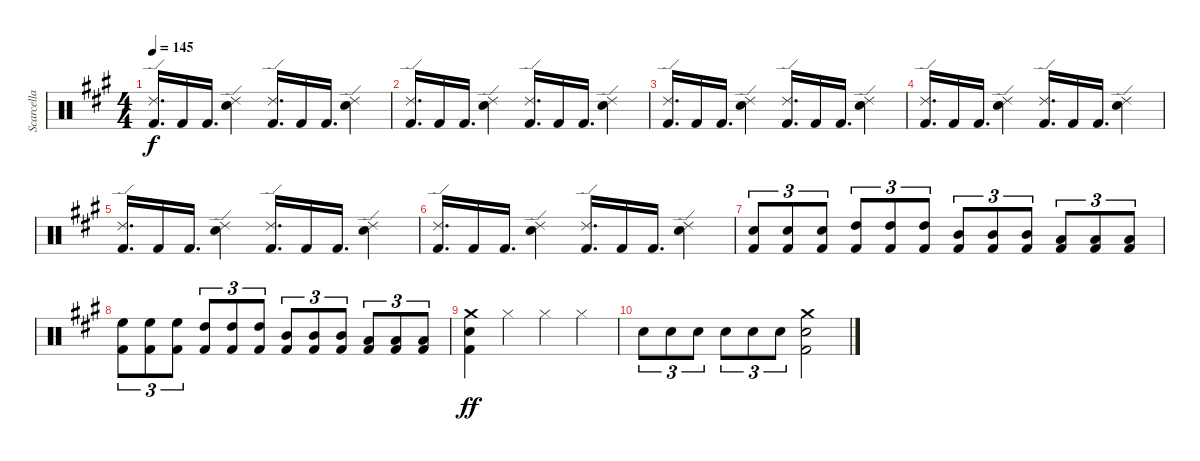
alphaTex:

\track ("Scarcella" "Scarcella") {instrument percussion}
\staff {score}
\articulation defaults
\ts (4 4)
\tempo 145
\clef neutral
\ks f#minor
("Ride (edge) 2" "Kick (hit) 2").16{d dy f} "Kick (hit) 2".16 "Kick (hit) 2".16{d} ("Ride (edge) 2" "Snare (hit) 2").4 ("Ride (edge) 2" "Kick (hit) 2").16{d} "Kick (hit) 2".16 "Kick (hit) 2".16{d} ("Ride (edge) 2" "Snare (hit) 2").4 |
("Ride (edge) 2" "Kick (hit) 2").16{d} "Kick (hit) 2".16 "Kick (hit) 2".16{d} ("Ride (edge) 2" "Snare (hit) 2").4 ("Ride (edge) 2" "Kick (hit) 2").16{d} "Kick (hit) 2".16 "Kick (hit) 2".16{d} ("Ride (edge) 2" "Snare (hit) 2").4 |
("Ride (edge) 2" "Kick (hit) 2").16{d} "Kick (hit) 2".16 "Kick (hit) 2".16{d} ("Ride (edge) 2" "Snare (hit) 2").4 ("Ride (edge) 2" "Kick (hit) 2").16{d} "Kick (hit) 2".16 "Kick (hit) 2".16{d} ("Ride (edge) 2" "Snare (hit) 2").4 |
("Ride (edge) 2" "Kick (hit) 2").16{d} "Kick (hit) 2".16 "Kick (hit) 2".16{d} ("Ride (edge) 2" "Snare (hit) 2").4 ("Ride (edge) 2" "Kick (hit) 2").16{d} "Kick (hit) 2".16 "Kick (hit) 2".16{d} ("Ride (edge) 2" "Snare (hit) 2").4 |
("Ride (edge) 2" "Kick (hit) 2").16{d} "Kick (hit) 2".16 "Kick (hit) 2".16{d} ("Ride (edge) 2" "Snare (hit) 2").4 ("Ride (edge) 2" "Kick (hit) 2").16{d} "Kick (hit) 2".16 "Kick (hit) 2".16{d} ("Ride (edge) 2" "Snare (hit) 2").4 |
("Ride (edge) 2" "Kick (hit) 2").16{d} "Kick (hit) 2".16 "Kick (hit) 2".16{d} ("Ride (edge) 2" "Snare (hit) 2").4 ("Ride (edge) 2" "Kick (hit) 2").16{d} "Kick (hit) 2".16 "Kick (hit) 2".16{d} ("Ride (edge) 2" "Snare (hit) 2").4 |
("Snare (hit) 2" "Kick (hit) 2").8{tu (3 2)} ("Snare (hit) 2" "Kick (hit) 2").8{tu (3 2)} ("Snare (hit) 2" "Kick (hit) 2").8{tu (3 2)} ("High Tom (hit)" "Kick (hit) 2").8{tu (3 2)} ("High Tom (hit)" "Kick (hit) 2").8{tu (3 2)} ("High Tom (hit)" "Kick (hit) 2").8{tu (3 2)} ("Mid Tom (hit)" "Kick (hit) 2").8{tu (3 2)} ("Mid Tom (hit)" "Kick (hit) 2").8{tu (3 2)} ("Mid Tom (hit)" "Kick (hit) 2").8{tu (3 2)} ("Low Tom (hit)" "Kick (hit) 2").8{tu (3 2)} ("Low Tom (hit)" "Kick (hit) 2").8{tu (3 2)} ("Low Tom (hit)" "Kick (hit) 2").8{tu (3 2)} |
("High Floor Tom (hit)" "Kick (hit) 2").8{tu (3 2)} ("High Floor Tom (hit)" "Kick (hit) 2").8{tu (3 2)} ("High Floor Tom (hit)" "Kick (hit) 2").8{tu (3 2)} ("High Tom (hit)" "Kick (hit) 2").8{tu (3 2)} ("High Tom (hit)" "Kick (hit) 2").8{tu (3 2)} ("High Tom (hit)" "Kick (hit) 2").8{tu (3 2)} ("Mid Tom (hit)" "Kick (hit) 2").8{tu (3 2)} ("Mid Tom (hit)" "Kick (hit) 2").8{tu (3 2)} ("Mid Tom (hit)" "Kick (hit) 2").8{tu (3 2)} ("Low Tom (hit)" "Kick (hit) 2").8{tu (3 2)} ("Low Tom (hit)" "Kick (hit) 2").8{tu (3 2)} ("Low Tom (hit)" "Kick (hit) 2").8{tu (3 2)} |
("Crash medium (hit)" "Kick (hit) 2" "Snare (hit) 2").4{dy ff} "Hi-Hat (closed)".4 "Hi-Hat (closed)".4 "Hi-Hat (closed)".4 |
"Snare (hit) 2".8{tu (3 2)} "Snare (hit) 2".8{tu (3 2)} "Snare (hit) 2".8{tu (3 2)} "Snare (hit) 2".8{tu (3 2)} "Snare (hit) 2".8{tu (3 2)} "Snare (hit) 2".8{tu (3 2)} ("Crash medium (hit)" "Kick (hit) 2" "Snare (hit) 2").2
